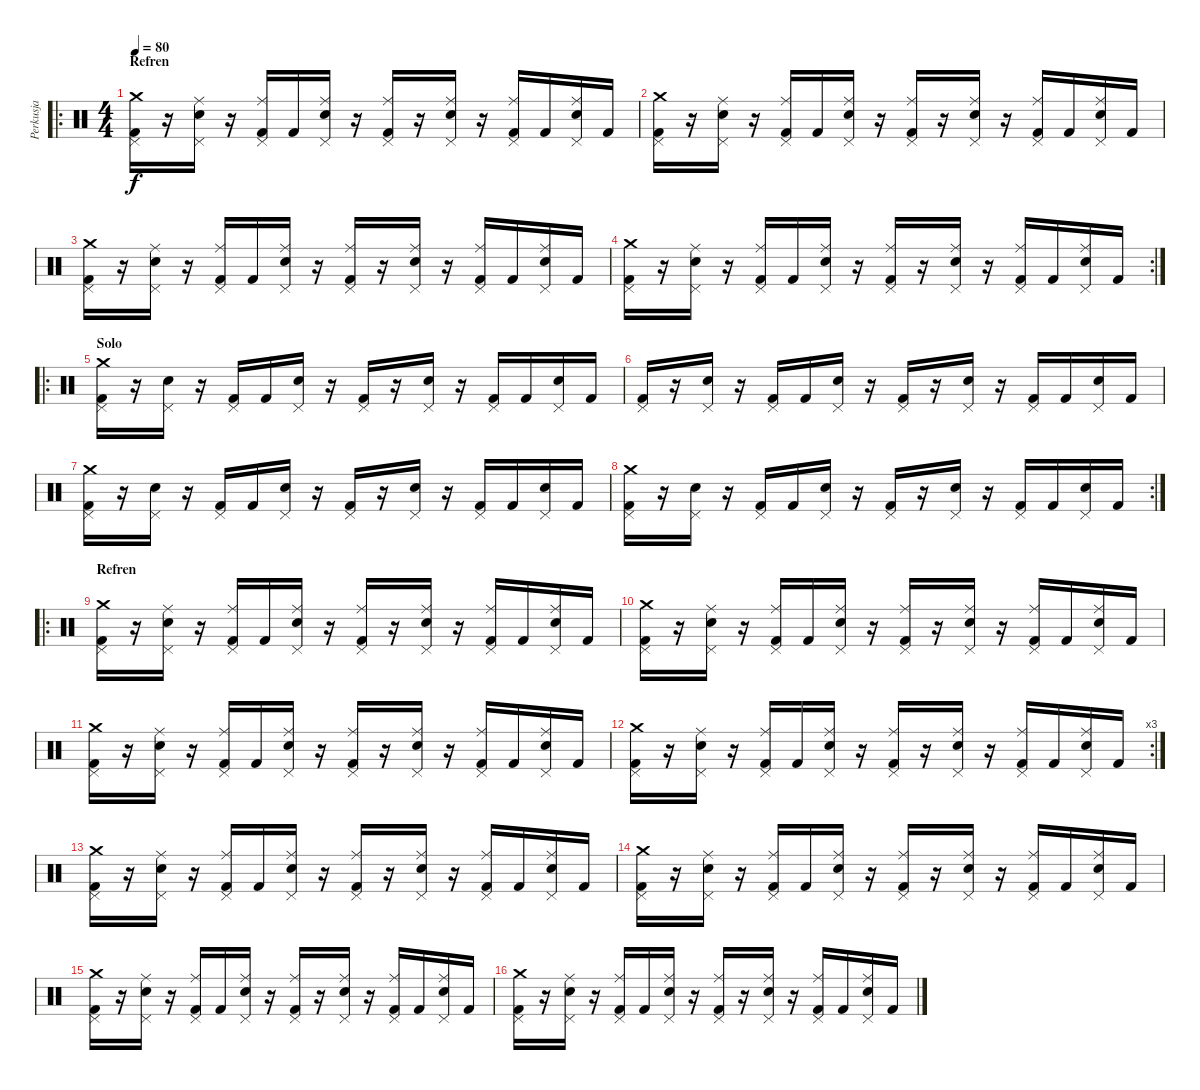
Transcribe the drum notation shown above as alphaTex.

\track ("Perkusja" "Perkusja") {instrument percussion}
\staff {score}
\articulation defaults
\ro
\ts (4 4)
\section ("" "Refren")
\tempo 80
\clef neutral
\ks c
("Crash medium (hit)" "Pedal Hi-Hat (hit)" "Kick (hit) 2").16{dy f} r.16 ("Ride (middle)" "Pedal Hi-Hat (hit)" "Electric Snare (hit)").16 r.16 ("Ride (middle)" "Pedal Hi-Hat (hit)" "Kick (hit) 2").16 "Kick (hit) 2".16 ("Ride (middle)" "Pedal Hi-Hat (hit)" "Electric Snare (hit)").16 r.16 ("Ride (middle)" "Pedal Hi-Hat (hit)" "Kick (hit) 2").16 r.16 ("Ride (middle)" "Pedal Hi-Hat (hit)" "Electric Snare (hit)").16 r.16 ("Ride (middle)" "Pedal Hi-Hat (hit)" "Kick (hit) 2").16 "Kick (hit) 2".16 ("Ride (middle)" "Pedal Hi-Hat (hit)" "Electric Snare (hit)").16 "Kick (hit) 2".16 |
("Crash medium (hit)" "Pedal Hi-Hat (hit)" "Kick (hit) 2").16 r.16 ("Ride (middle)" "Pedal Hi-Hat (hit)" "Electric Snare (hit)").16 r.16 ("Ride (middle)" "Pedal Hi-Hat (hit)" "Kick (hit) 2").16 "Kick (hit) 2".16 ("Ride (middle)" "Pedal Hi-Hat (hit)" "Electric Snare (hit)").16 r.16 ("Ride (middle)" "Pedal Hi-Hat (hit)" "Kick (hit) 2").16 r.16 ("Ride (middle)" "Pedal Hi-Hat (hit)" "Electric Snare (hit)").16 r.16 ("Ride (middle)" "Pedal Hi-Hat (hit)" "Kick (hit) 2").16 "Kick (hit) 2".16 ("Ride (middle)" "Pedal Hi-Hat (hit)" "Electric Snare (hit)").16 "Kick (hit) 2".16 |
("Crash medium (hit)" "Pedal Hi-Hat (hit)" "Kick (hit) 2").16 r.16 ("Ride (middle)" "Pedal Hi-Hat (hit)" "Electric Snare (hit)").16 r.16 ("Ride (middle)" "Pedal Hi-Hat (hit)" "Kick (hit) 2").16 "Kick (hit) 2".16 ("Ride (middle)" "Pedal Hi-Hat (hit)" "Electric Snare (hit)").16 r.16 ("Ride (middle)" "Pedal Hi-Hat (hit)" "Kick (hit) 2").16 r.16 ("Ride (middle)" "Pedal Hi-Hat (hit)" "Electric Snare (hit)").16 r.16 ("Ride (middle)" "Pedal Hi-Hat (hit)" "Kick (hit) 2").16 "Kick (hit) 2".16 ("Ride (middle)" "Pedal Hi-Hat (hit)" "Electric Snare (hit)").16 "Kick (hit) 2".16 |
\rc 2
("Crash medium (hit)" "Pedal Hi-Hat (hit)" "Kick (hit) 2").16 r.16 ("Ride (middle)" "Pedal Hi-Hat (hit)" "Electric Snare (hit)").16 r.16 ("Ride (middle)" "Pedal Hi-Hat (hit)" "Kick (hit) 2").16 "Kick (hit) 2".16 ("Ride (middle)" "Pedal Hi-Hat (hit)" "Electric Snare (hit)").16 r.16 ("Ride (middle)" "Pedal Hi-Hat (hit)" "Kick (hit) 2").16 r.16 ("Ride (middle)" "Pedal Hi-Hat (hit)" "Electric Snare (hit)").16 r.16 ("Ride (middle)" "Pedal Hi-Hat (hit)" "Kick (hit) 2").16 "Kick (hit) 2".16 ("Ride (middle)" "Pedal Hi-Hat (hit)" "Electric Snare (hit)").16 "Kick (hit) 2".16 |
\ro
\section ("" "Solo")
("Crash medium (hit)" "Pedal Hi-Hat (hit)" "Kick (hit) 2").16 r.16 ("Pedal Hi-Hat (hit)" "Electric Snare (hit)").16 r.16 ("Pedal Hi-Hat (hit)" "Kick (hit) 2").16 "Kick (hit) 2".16 ("Pedal Hi-Hat (hit)" "Electric Snare (hit)").16 r.16 ("Pedal Hi-Hat (hit)" "Kick (hit) 2").16 r.16 ("Pedal Hi-Hat (hit)" "Electric Snare (hit)").16 r.16 ("Pedal Hi-Hat (hit)" "Kick (hit) 2").16 "Kick (hit) 2".16 ("Pedal Hi-Hat (hit)" "Electric Snare (hit)").16 "Kick (hit) 2".16 |
("Pedal Hi-Hat (hit)" "Kick (hit) 2").16 r.16 ("Pedal Hi-Hat (hit)" "Electric Snare (hit)").16 r.16 ("Pedal Hi-Hat (hit)" "Kick (hit) 2").16 "Kick (hit) 2".16 ("Pedal Hi-Hat (hit)" "Electric Snare (hit)").16 r.16 ("Pedal Hi-Hat (hit)" "Kick (hit) 2").16 r.16 ("Pedal Hi-Hat (hit)" "Electric Snare (hit)").16 r.16 ("Pedal Hi-Hat (hit)" "Kick (hit) 2").16 "Kick (hit) 2".16 ("Pedal Hi-Hat (hit)" "Electric Snare (hit)").16 "Kick (hit) 2".16 |
("Crash medium (hit)" "Pedal Hi-Hat (hit)" "Kick (hit) 2").16 r.16 ("Pedal Hi-Hat (hit)" "Electric Snare (hit)").16 r.16 ("Pedal Hi-Hat (hit)" "Kick (hit) 2").16 "Kick (hit) 2".16 ("Pedal Hi-Hat (hit)" "Electric Snare (hit)").16 r.16 ("Pedal Hi-Hat (hit)" "Kick (hit) 2").16 r.16 ("Pedal Hi-Hat (hit)" "Electric Snare (hit)").16 r.16 ("Pedal Hi-Hat (hit)" "Kick (hit) 2").16 "Kick (hit) 2".16 ("Pedal Hi-Hat (hit)" "Electric Snare (hit)").16 "Kick (hit) 2".16 |
\rc 2
("Crash medium (hit)" "Pedal Hi-Hat (hit)" "Kick (hit) 2").16 r.16 ("Pedal Hi-Hat (hit)" "Electric Snare (hit)").16 r.16 ("Pedal Hi-Hat (hit)" "Kick (hit) 2").16 "Kick (hit) 2".16 ("Pedal Hi-Hat (hit)" "Electric Snare (hit)").16 r.16 ("Pedal Hi-Hat (hit)" "Kick (hit) 2").16 r.16 ("Pedal Hi-Hat (hit)" "Electric Snare (hit)").16 r.16 ("Pedal Hi-Hat (hit)" "Kick (hit) 2").16 "Kick (hit) 2".16 ("Pedal Hi-Hat (hit)" "Electric Snare (hit)").16 "Kick (hit) 2".16 |
\ro
\section ("" "Refren")
("Crash medium (hit)" "Pedal Hi-Hat (hit)" "Kick (hit) 2").16 r.16 ("Ride (middle)" "Pedal Hi-Hat (hit)" "Electric Snare (hit)").16 r.16 ("Ride (middle)" "Pedal Hi-Hat (hit)" "Kick (hit) 2").16 "Kick (hit) 2".16 ("Ride (middle)" "Pedal Hi-Hat (hit)" "Electric Snare (hit)").16 r.16 ("Ride (middle)" "Pedal Hi-Hat (hit)" "Kick (hit) 2").16 r.16 ("Ride (middle)" "Pedal Hi-Hat (hit)" "Electric Snare (hit)").16 r.16 ("Ride (middle)" "Pedal Hi-Hat (hit)" "Kick (hit) 2").16 "Kick (hit) 2".16 ("Ride (middle)" "Pedal Hi-Hat (hit)" "Electric Snare (hit)").16 "Kick (hit) 2".16 |
("Crash medium (hit)" "Pedal Hi-Hat (hit)" "Kick (hit) 2").16 r.16 ("Ride (middle)" "Pedal Hi-Hat (hit)" "Electric Snare (hit)").16 r.16 ("Ride (middle)" "Pedal Hi-Hat (hit)" "Kick (hit) 2").16 "Kick (hit) 2".16 ("Ride (middle)" "Pedal Hi-Hat (hit)" "Electric Snare (hit)").16 r.16 ("Ride (middle)" "Pedal Hi-Hat (hit)" "Kick (hit) 2").16 r.16 ("Ride (middle)" "Pedal Hi-Hat (hit)" "Electric Snare (hit)").16 r.16 ("Ride (middle)" "Pedal Hi-Hat (hit)" "Kick (hit) 2").16 "Kick (hit) 2".16 ("Ride (middle)" "Pedal Hi-Hat (hit)" "Electric Snare (hit)").16 "Kick (hit) 2".16 |
("Crash medium (hit)" "Pedal Hi-Hat (hit)" "Kick (hit) 2").16 r.16 ("Ride (middle)" "Pedal Hi-Hat (hit)" "Electric Snare (hit)").16 r.16 ("Ride (middle)" "Pedal Hi-Hat (hit)" "Kick (hit) 2").16 "Kick (hit) 2".16 ("Ride (middle)" "Pedal Hi-Hat (hit)" "Electric Snare (hit)").16 r.16 ("Ride (middle)" "Pedal Hi-Hat (hit)" "Kick (hit) 2").16 r.16 ("Ride (middle)" "Pedal Hi-Hat (hit)" "Electric Snare (hit)").16 r.16 ("Ride (middle)" "Pedal Hi-Hat (hit)" "Kick (hit) 2").16 "Kick (hit) 2".16 ("Ride (middle)" "Pedal Hi-Hat (hit)" "Electric Snare (hit)").16 "Kick (hit) 2".16 |
\rc 3
("Crash medium (hit)" "Pedal Hi-Hat (hit)" "Kick (hit) 2").16 r.16 ("Ride (middle)" "Pedal Hi-Hat (hit)" "Electric Snare (hit)").16 r.16 ("Ride (middle)" "Pedal Hi-Hat (hit)" "Kick (hit) 2").16 "Kick (hit) 2".16 ("Ride (middle)" "Pedal Hi-Hat (hit)" "Electric Snare (hit)").16 r.16 ("Ride (middle)" "Pedal Hi-Hat (hit)" "Kick (hit) 2").16 r.16 ("Ride (middle)" "Pedal Hi-Hat (hit)" "Electric Snare (hit)").16 r.16 ("Ride (middle)" "Pedal Hi-Hat (hit)" "Kick (hit) 2").16 "Kick (hit) 2".16 ("Ride (middle)" "Pedal Hi-Hat (hit)" "Electric Snare (hit)").16 "Kick (hit) 2".16 |
("Crash medium (hit)" "Pedal Hi-Hat (hit)" "Kick (hit) 2").16 r.16 ("Ride (middle)" "Pedal Hi-Hat (hit)" "Electric Snare (hit)").16 r.16 ("Ride (middle)" "Pedal Hi-Hat (hit)" "Kick (hit) 2").16 "Kick (hit) 2".16 ("Ride (middle)" "Pedal Hi-Hat (hit)" "Electric Snare (hit)").16 r.16 ("Ride (middle)" "Pedal Hi-Hat (hit)" "Kick (hit) 2").16 r.16 ("Ride (middle)" "Pedal Hi-Hat (hit)" "Electric Snare (hit)").16 r.16 ("Ride (middle)" "Pedal Hi-Hat (hit)" "Kick (hit) 2").16 "Kick (hit) 2".16 ("Ride (middle)" "Pedal Hi-Hat (hit)" "Electric Snare (hit)").16 "Kick (hit) 2".16 |
("Crash medium (hit)" "Pedal Hi-Hat (hit)" "Kick (hit) 2").16 r.16 ("Ride (middle)" "Pedal Hi-Hat (hit)" "Electric Snare (hit)").16 r.16 ("Ride (middle)" "Pedal Hi-Hat (hit)" "Kick (hit) 2").16 "Kick (hit) 2".16 ("Ride (middle)" "Pedal Hi-Hat (hit)" "Electric Snare (hit)").16 r.16 ("Ride (middle)" "Pedal Hi-Hat (hit)" "Kick (hit) 2").16 r.16 ("Ride (middle)" "Pedal Hi-Hat (hit)" "Electric Snare (hit)").16 r.16 ("Ride (middle)" "Pedal Hi-Hat (hit)" "Kick (hit) 2").16 "Kick (hit) 2".16 ("Ride (middle)" "Pedal Hi-Hat (hit)" "Electric Snare (hit)").16 "Kick (hit) 2".16 |
("Crash medium (hit)" "Pedal Hi-Hat (hit)" "Kick (hit) 2").16 r.16 ("Ride (middle)" "Pedal Hi-Hat (hit)" "Electric Snare (hit)").16 r.16 ("Ride (middle)" "Pedal Hi-Hat (hit)" "Kick (hit) 2").16 "Kick (hit) 2".16 ("Ride (middle)" "Pedal Hi-Hat (hit)" "Electric Snare (hit)").16 r.16 ("Ride (middle)" "Pedal Hi-Hat (hit)" "Kick (hit) 2").16 r.16 ("Ride (middle)" "Pedal Hi-Hat (hit)" "Electric Snare (hit)").16 r.16 ("Ride (middle)" "Pedal Hi-Hat (hit)" "Kick (hit) 2").16 "Kick (hit) 2".16 ("Ride (middle)" "Pedal Hi-Hat (hit)" "Electric Snare (hit)").16 "Kick (hit) 2".16 |
("Crash medium (hit)" "Pedal Hi-Hat (hit)" "Kick (hit) 2").16 r.16 ("Ride (middle)" "Pedal Hi-Hat (hit)" "Electric Snare (hit)").16 r.16 ("Ride (middle)" "Pedal Hi-Hat (hit)" "Kick (hit) 2").16 "Kick (hit) 2".16 ("Ride (middle)" "Pedal Hi-Hat (hit)" "Electric Snare (hit)").16 r.16 ("Ride (middle)" "Pedal Hi-Hat (hit)" "Kick (hit) 2").16 r.16 ("Ride (middle)" "Pedal Hi-Hat (hit)" "Electric Snare (hit)").16 r.16 ("Ride (middle)" "Pedal Hi-Hat (hit)" "Kick (hit) 2").16 "Kick (hit) 2".16 ("Ride (middle)" "Pedal Hi-Hat (hit)" "Electric Snare (hit)").16 "Kick (hit) 2".16
